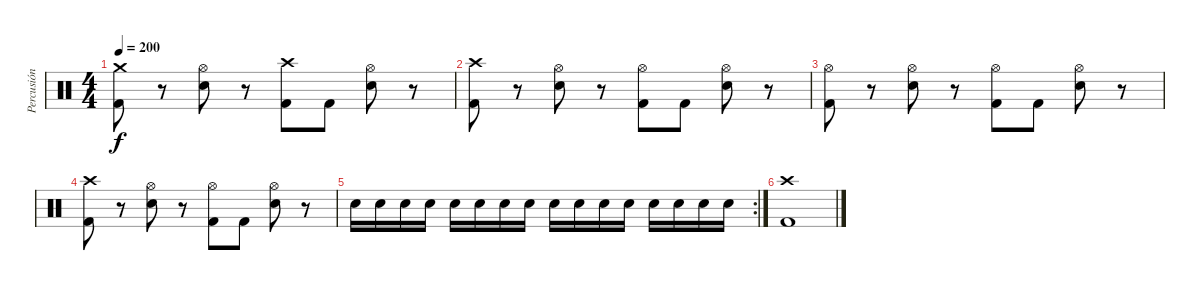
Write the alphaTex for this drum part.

\track ("Percusión" "Percusión") {instrument percussion}
\staff {score}
\articulation defaults
\ts (4 4)
\tempo 200
\clef neutral
\ks c
("Crash medium (hit)" "Kick (hit) 2").8{dy f} r.8 ("Hi-Hat (open)" "Electric Snare (hit)").8 r.8 ("Crash high (hit)" "Kick (hit) 2").8 "Kick (hit) 2".8 ("Hi-Hat (open)" "Electric Snare (hit)").8 r.8 |
("Crash high (hit)" "Kick (hit) 2").8 r.8 ("Hi-Hat (open)" "Electric Snare (hit)").8 r.8 ("Hi-Hat (open)" "Kick (hit) 2").8 "Kick (hit) 2".8 ("Hi-Hat (open)" "Electric Snare (hit)").8 r.8 |
("Hi-Hat (open)" "Kick (hit) 2").8 r.8 ("Hi-Hat (open)" "Electric Snare (hit)").8 r.8 ("Hi-Hat (open)" "Kick (hit) 2").8 "Kick (hit) 2".8 ("Hi-Hat (open)" "Electric Snare (hit)").8 r.8 |
("Crash high (hit)" "Kick (hit) 2").8 r.8 ("Hi-Hat (open)" "Electric Snare (hit)").8 r.8 ("Hi-Hat (open)" "Kick (hit) 2").8 "Kick (hit) 2".8 ("Hi-Hat (open)" "Electric Snare (hit)").8 r.8 |
\rc 2 "Electric Snare (hit)".16 "Electric Snare (hit)".16 "Electric Snare (hit)".16 "Electric Snare (hit)".16 "Electric Snare (hit)".16 "Electric Snare (hit)".16 "Electric Snare (hit)".16 "Electric Snare (hit)".16 "Electric Snare (hit)".16 "Electric Snare (hit)".16 "Electric Snare (hit)".16 "Electric Snare (hit)".16 "Electric Snare (hit)".16 "Electric Snare (hit)".16 "Electric Snare (hit)".16 "Electric Snare (hit)".16
|
("Crash high (hit)" "Kick (hit) 2").1
